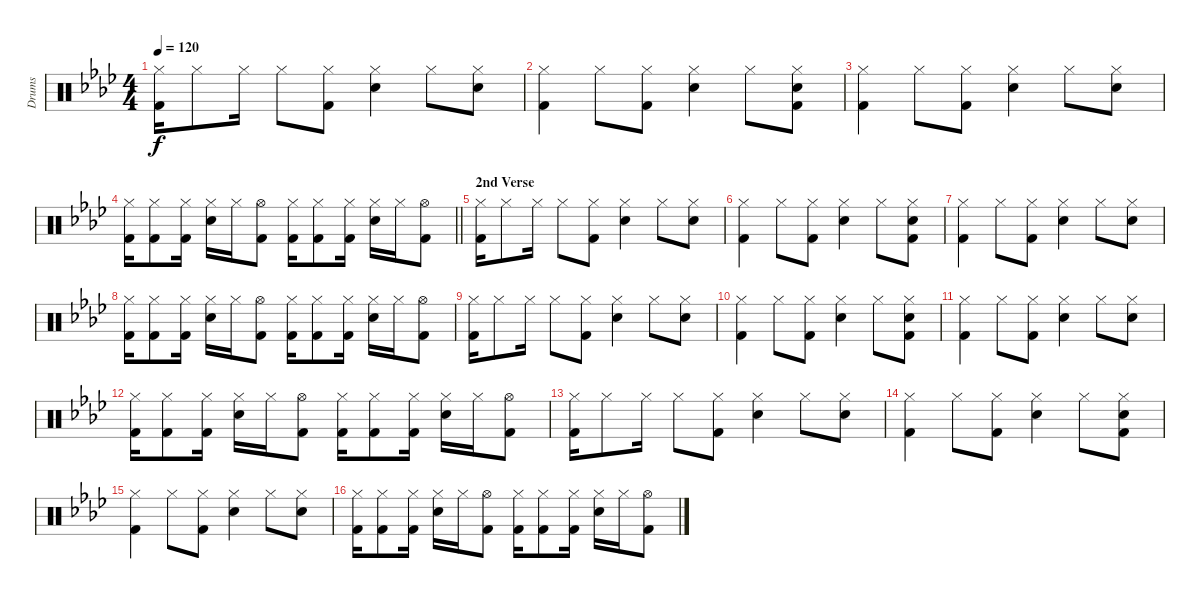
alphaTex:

\track ("Drums" "Drums") {instrument percussion}
\staff {score}
\articulation defaults
\ts (4 4)
\tempo 120
\clef neutral
\ks fminor
("Hi-Hat (closed)" "Kick (hit) 2").16{dy f} "Hi-Hat (closed)".8 "Hi-Hat (closed)".16 "Hi-Hat (closed)".8 ("Hi-Hat (closed)" "Kick (hit) 2").8 ("Hi-Hat (closed)" "Snare (hit) 2").4 "Hi-Hat (closed)".8 ("Hi-Hat (closed)" "Snare (hit) 2").8 |
("Hi-Hat (closed)" "Kick (hit) 2").4 "Hi-Hat (closed)".8 ("Hi-Hat (closed)" "Kick (hit) 2").8 ("Hi-Hat (closed)" "Snare (hit) 2").4 "Hi-Hat (closed)".8 ("Hi-Hat (closed)" "Snare (hit) 2" "Kick (hit) 2").8 |
("Hi-Hat (closed)" "Kick (hit) 2").4 "Hi-Hat (closed)".8 ("Hi-Hat (closed)" "Kick (hit) 2").8 ("Hi-Hat (closed)" "Snare (hit) 2").4 "Hi-Hat (closed)".8 ("Hi-Hat (closed)" "Snare (hit) 2").8 |
\barLineRight lightlight
("Hi-Hat (closed)" "Kick (hit) 2").16 ("Hi-Hat (closed)" "Kick (hit) 2").8 ("Hi-Hat (closed)" "Kick (hit) 2").16 ("Hi-Hat (closed)" "Snare (hit) 2").16 "Hi-Hat (closed)".16 ("Hi-Hat (open)" "Kick (hit) 2").8 ("Hi-Hat (closed)" "Kick (hit) 2").16 ("Hi-Hat (closed)" "Kick (hit) 2").8 ("Hi-Hat (closed)" "Kick (hit) 2").16 ("Hi-Hat (closed)" "Snare (hit) 2").16 "Hi-Hat (closed)".16 ("Hi-Hat (open)" "Kick (hit) 2").8 |
\section ("" "2nd Verse")
("Hi-Hat (closed)" "Kick (hit) 2").16 "Hi-Hat (closed)".8 "Hi-Hat (closed)".16 "Hi-Hat (closed)".8 ("Hi-Hat (closed)" "Kick (hit) 2").8 ("Hi-Hat (closed)" "Snare (hit) 2").4 "Hi-Hat (closed)".8 ("Hi-Hat (closed)" "Snare (hit) 2").8 |
("Hi-Hat (closed)" "Kick (hit) 2").4 "Hi-Hat (closed)".8 ("Hi-Hat (closed)" "Kick (hit) 2").8 ("Hi-Hat (closed)" "Snare (hit) 2").4 "Hi-Hat (closed)".8 ("Hi-Hat (closed)" "Snare (hit) 2" "Kick (hit) 2").8 |
("Hi-Hat (closed)" "Kick (hit) 2").4 "Hi-Hat (closed)".8 ("Hi-Hat (closed)" "Kick (hit) 2").8 ("Hi-Hat (closed)" "Snare (hit) 2").4 "Hi-Hat (closed)".8 ("Hi-Hat (closed)" "Snare (hit) 2").8 |
("Hi-Hat (closed)" "Kick (hit) 2").16 ("Hi-Hat (closed)" "Kick (hit) 2").8 ("Hi-Hat (closed)" "Kick (hit) 2").16 ("Hi-Hat (closed)" "Snare (hit) 2").16 "Hi-Hat (closed)".16 ("Hi-Hat (open)" "Kick (hit) 2").8 ("Hi-Hat (closed)" "Kick (hit) 2").16 ("Hi-Hat (closed)" "Kick (hit) 2").8 ("Hi-Hat (closed)" "Kick (hit) 2").16 ("Hi-Hat (closed)" "Snare (hit) 2").16 "Hi-Hat (closed)".16 ("Hi-Hat (open)" "Kick (hit) 2").8 |
("Hi-Hat (closed)" "Kick (hit) 2").16 "Hi-Hat (closed)".8 "Hi-Hat (closed)".16 "Hi-Hat (closed)".8 ("Hi-Hat (closed)" "Kick (hit) 2").8 ("Hi-Hat (closed)" "Snare (hit) 2").4 "Hi-Hat (closed)".8 ("Hi-Hat (closed)" "Snare (hit) 2").8 |
("Hi-Hat (closed)" "Kick (hit) 2").4 "Hi-Hat (closed)".8 ("Hi-Hat (closed)" "Kick (hit) 2").8 ("Hi-Hat (closed)" "Snare (hit) 2").4 "Hi-Hat (closed)".8 ("Hi-Hat (closed)" "Snare (hit) 2" "Kick (hit) 2").8 |
("Hi-Hat (closed)" "Kick (hit) 2").4 "Hi-Hat (closed)".8 ("Hi-Hat (closed)" "Kick (hit) 2").8 ("Hi-Hat (closed)" "Snare (hit) 2").4 "Hi-Hat (closed)".8 ("Hi-Hat (closed)" "Snare (hit) 2").8 |
("Hi-Hat (closed)" "Kick (hit) 2").16 ("Hi-Hat (closed)" "Kick (hit) 2").8 ("Hi-Hat (closed)" "Kick (hit) 2").16 ("Hi-Hat (closed)" "Snare (hit) 2").16 "Hi-Hat (closed)".16 ("Hi-Hat (open)" "Kick (hit) 2").8 ("Hi-Hat (closed)" "Kick (hit) 2").16 ("Hi-Hat (closed)" "Kick (hit) 2").8 ("Hi-Hat (closed)" "Kick (hit) 2").16 ("Hi-Hat (closed)" "Snare (hit) 2").16 "Hi-Hat (closed)".16 ("Hi-Hat (open)" "Kick (hit) 2").8 |
("Hi-Hat (closed)" "Kick (hit) 2").16 "Hi-Hat (closed)".8 "Hi-Hat (closed)".16 "Hi-Hat (closed)".8 ("Hi-Hat (closed)" "Kick (hit) 2").8 ("Hi-Hat (closed)" "Snare (hit) 2").4 "Hi-Hat (closed)".8 ("Hi-Hat (closed)" "Snare (hit) 2").8 |
("Hi-Hat (closed)" "Kick (hit) 2").4 "Hi-Hat (closed)".8 ("Hi-Hat (closed)" "Kick (hit) 2").8 ("Hi-Hat (closed)" "Snare (hit) 2").4 "Hi-Hat (closed)".8 ("Hi-Hat (closed)" "Snare (hit) 2" "Kick (hit) 2").8 |
("Hi-Hat (closed)" "Kick (hit) 2").4 "Hi-Hat (closed)".8 ("Hi-Hat (closed)" "Kick (hit) 2").8 ("Hi-Hat (closed)" "Snare (hit) 2").4 "Hi-Hat (closed)".8 ("Hi-Hat (closed)" "Snare (hit) 2").8 |
("Hi-Hat (closed)" "Kick (hit) 2").16 ("Hi-Hat (closed)" "Kick (hit) 2").8 ("Hi-Hat (closed)" "Kick (hit) 2").16 ("Hi-Hat (closed)" "Snare (hit) 2").16 "Hi-Hat (closed)".16 ("Hi-Hat (open)" "Kick (hit) 2").8 ("Hi-Hat (closed)" "Kick (hit) 2").16 ("Hi-Hat (closed)" "Kick (hit) 2").8 ("Hi-Hat (closed)" "Kick (hit) 2").16 ("Hi-Hat (closed)" "Snare (hit) 2").16 "Hi-Hat (closed)".16 ("Hi-Hat (open)" "Kick (hit) 2").8
